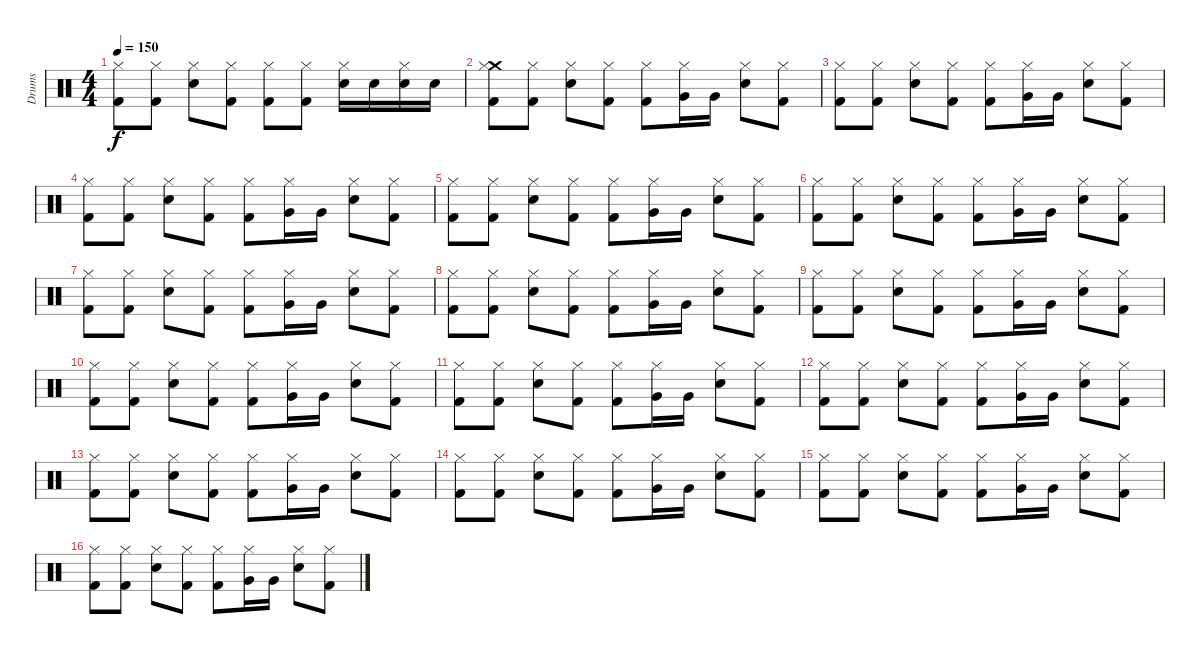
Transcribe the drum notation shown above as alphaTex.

\track ("Drums" "Drums") {instrument percussion}
\staff {score}
\articulation defaults
\ts (4 4)
\tempo 150
\clef neutral
\ks c
("Hi-Hat (closed)" "Kick (hit) 2").8{dy f} ("Hi-Hat (closed)" "Kick (hit) 2").8 ("Hi-Hat (closed)" "Snare (hit) 2").8 ("Hi-Hat (closed)" "Kick (hit) 2").8 ("Hi-Hat (closed)" "Kick (hit) 2").8 ("Kick (hit) 2" "Hi-Hat (closed)").8 ("Snare (hit) 2" "Hi-Hat (closed)").16 "Snare (hit) 2".16 ("Snare (hit) 2" "Hi-Hat (closed)").16 "Snare (hit) 2".16 |
("Crash medium (hit)" "Hi-Hat (closed)" "Kick (hit) 2").8 ("Hi-Hat (closed)" "Kick (hit) 2").8 ("Hi-Hat (closed)" "Snare (hit) 2").8 ("Hi-Hat (closed)" "Kick (hit) 2").8 ("Hi-Hat (closed)" "Kick (hit) 2").8 ("Hi-Hat (closed)" "Very Low Tom (hit)").16 "Very Low Tom (hit)".16 ("Hi-Hat (closed)" "Snare (hit) 2").8 ("Hi-Hat (closed)" "Kick (hit) 2").8 |
("Hi-Hat (closed)" "Kick (hit) 2").8 ("Hi-Hat (closed)" "Kick (hit) 2").8 ("Hi-Hat (closed)" "Snare (hit) 2").8 ("Hi-Hat (closed)" "Kick (hit) 2").8 ("Hi-Hat (closed)" "Kick (hit) 2").8 ("Hi-Hat (closed)" "Very Low Tom (hit)").16 "Very Low Tom (hit)".16 ("Hi-Hat (closed)" "Snare (hit) 2").8 ("Hi-Hat (closed)" "Kick (hit) 2").8 |
("Hi-Hat (closed)" "Kick (hit) 2").8 ("Hi-Hat (closed)" "Kick (hit) 2").8 ("Hi-Hat (closed)" "Snare (hit) 2").8 ("Hi-Hat (closed)" "Kick (hit) 2").8 ("Hi-Hat (closed)" "Kick (hit) 2").8 ("Hi-Hat (closed)" "Very Low Tom (hit)").16 "Very Low Tom (hit)".16 ("Hi-Hat (closed)" "Snare (hit) 2").8 ("Hi-Hat (closed)" "Kick (hit) 2").8 |
("Hi-Hat (closed)" "Kick (hit) 2").8 ("Hi-Hat (closed)" "Kick (hit) 2").8 ("Hi-Hat (closed)" "Snare (hit) 2").8 ("Hi-Hat (closed)" "Kick (hit) 2").8 ("Hi-Hat (closed)" "Kick (hit) 2").8 ("Hi-Hat (closed)" "Very Low Tom (hit)").16 "Very Low Tom (hit)".16 ("Hi-Hat (closed)" "Snare (hit) 2").8 ("Hi-Hat (closed)" "Kick (hit) 2").8 |
("Hi-Hat (closed)" "Kick (hit) 2").8 ("Hi-Hat (closed)" "Kick (hit) 2").8 ("Hi-Hat (closed)" "Snare (hit) 2").8 ("Hi-Hat (closed)" "Kick (hit) 2").8 ("Hi-Hat (closed)" "Kick (hit) 2").8 ("Hi-Hat (closed)" "Very Low Tom (hit)").16 "Very Low Tom (hit)".16 ("Hi-Hat (closed)" "Snare (hit) 2").8 ("Hi-Hat (closed)" "Kick (hit) 2").8 |
("Hi-Hat (closed)" "Kick (hit) 2").8 ("Hi-Hat (closed)" "Kick (hit) 2").8 ("Hi-Hat (closed)" "Snare (hit) 2").8 ("Hi-Hat (closed)" "Kick (hit) 2").8 ("Hi-Hat (closed)" "Kick (hit) 2").8 ("Hi-Hat (closed)" "Very Low Tom (hit)").16 "Very Low Tom (hit)".16 ("Hi-Hat (closed)" "Snare (hit) 2").8 ("Hi-Hat (closed)" "Kick (hit) 2").8 |
("Hi-Hat (closed)" "Kick (hit) 2").8 ("Hi-Hat (closed)" "Kick (hit) 2").8 ("Hi-Hat (closed)" "Snare (hit) 2").8 ("Hi-Hat (closed)" "Kick (hit) 2").8 ("Hi-Hat (closed)" "Kick (hit) 2").8 ("Hi-Hat (closed)" "Very Low Tom (hit)").16 "Very Low Tom (hit)".16 ("Hi-Hat (closed)" "Snare (hit) 2").8 ("Hi-Hat (closed)" "Kick (hit) 2").8 |
("Hi-Hat (closed)" "Kick (hit) 2").8 ("Hi-Hat (closed)" "Kick (hit) 2").8 ("Hi-Hat (closed)" "Snare (hit) 2").8 ("Hi-Hat (closed)" "Kick (hit) 2").8 ("Hi-Hat (closed)" "Kick (hit) 2").8 ("Hi-Hat (closed)" "Very Low Tom (hit)").16 "Very Low Tom (hit)".16 ("Hi-Hat (closed)" "Snare (hit) 2").8 ("Hi-Hat (closed)" "Kick (hit) 2").8 |
("Hi-Hat (closed)" "Kick (hit) 2").8 ("Hi-Hat (closed)" "Kick (hit) 2").8 ("Hi-Hat (closed)" "Snare (hit) 2").8 ("Hi-Hat (closed)" "Kick (hit) 2").8 ("Hi-Hat (closed)" "Kick (hit) 2").8 ("Hi-Hat (closed)" "Very Low Tom (hit)").16 "Very Low Tom (hit)".16 ("Hi-Hat (closed)" "Snare (hit) 2").8 ("Hi-Hat (closed)" "Kick (hit) 2").8 |
("Hi-Hat (closed)" "Kick (hit) 2").8 ("Hi-Hat (closed)" "Kick (hit) 2").8 ("Hi-Hat (closed)" "Snare (hit) 2").8 ("Hi-Hat (closed)" "Kick (hit) 2").8 ("Hi-Hat (closed)" "Kick (hit) 2").8 ("Hi-Hat (closed)" "Very Low Tom (hit)").16 "Very Low Tom (hit)".16 ("Hi-Hat (closed)" "Snare (hit) 2").8 ("Hi-Hat (closed)" "Kick (hit) 2").8 |
("Hi-Hat (closed)" "Kick (hit) 2").8 ("Hi-Hat (closed)" "Kick (hit) 2").8 ("Hi-Hat (closed)" "Snare (hit) 2").8 ("Hi-Hat (closed)" "Kick (hit) 2").8 ("Hi-Hat (closed)" "Kick (hit) 2").8 ("Hi-Hat (closed)" "Very Low Tom (hit)").16 "Very Low Tom (hit)".16 ("Hi-Hat (closed)" "Snare (hit) 2").8 ("Hi-Hat (closed)" "Kick (hit) 2").8 |
("Hi-Hat (closed)" "Kick (hit) 2").8 ("Hi-Hat (closed)" "Kick (hit) 2").8 ("Hi-Hat (closed)" "Snare (hit) 2").8 ("Hi-Hat (closed)" "Kick (hit) 2").8 ("Hi-Hat (closed)" "Kick (hit) 2").8 ("Hi-Hat (closed)" "Very Low Tom (hit)").16 "Very Low Tom (hit)".16 ("Hi-Hat (closed)" "Snare (hit) 2").8 ("Hi-Hat (closed)" "Kick (hit) 2").8 |
("Hi-Hat (closed)" "Kick (hit) 2").8 ("Hi-Hat (closed)" "Kick (hit) 2").8 ("Hi-Hat (closed)" "Snare (hit) 2").8 ("Hi-Hat (closed)" "Kick (hit) 2").8 ("Hi-Hat (closed)" "Kick (hit) 2").8 ("Hi-Hat (closed)" "Very Low Tom (hit)").16 "Very Low Tom (hit)".16 ("Hi-Hat (closed)" "Snare (hit) 2").8 ("Hi-Hat (closed)" "Kick (hit) 2").8 |
("Hi-Hat (closed)" "Kick (hit) 2").8 ("Hi-Hat (closed)" "Kick (hit) 2").8 ("Hi-Hat (closed)" "Snare (hit) 2").8 ("Hi-Hat (closed)" "Kick (hit) 2").8 ("Hi-Hat (closed)" "Kick (hit) 2").8 ("Hi-Hat (closed)" "Very Low Tom (hit)").16 "Very Low Tom (hit)".16 ("Hi-Hat (closed)" "Snare (hit) 2").8 ("Hi-Hat (closed)" "Kick (hit) 2").8 |
("Hi-Hat (closed)" "Kick (hit) 2").8 ("Hi-Hat (closed)" "Kick (hit) 2").8 ("Hi-Hat (closed)" "Snare (hit) 2").8 ("Hi-Hat (closed)" "Kick (hit) 2").8 ("Hi-Hat (closed)" "Kick (hit) 2").8 ("Hi-Hat (closed)" "Very Low Tom (hit)").16 "Very Low Tom (hit)".16 ("Hi-Hat (closed)" "Snare (hit) 2").8 ("Hi-Hat (closed)" "Kick (hit) 2").8
